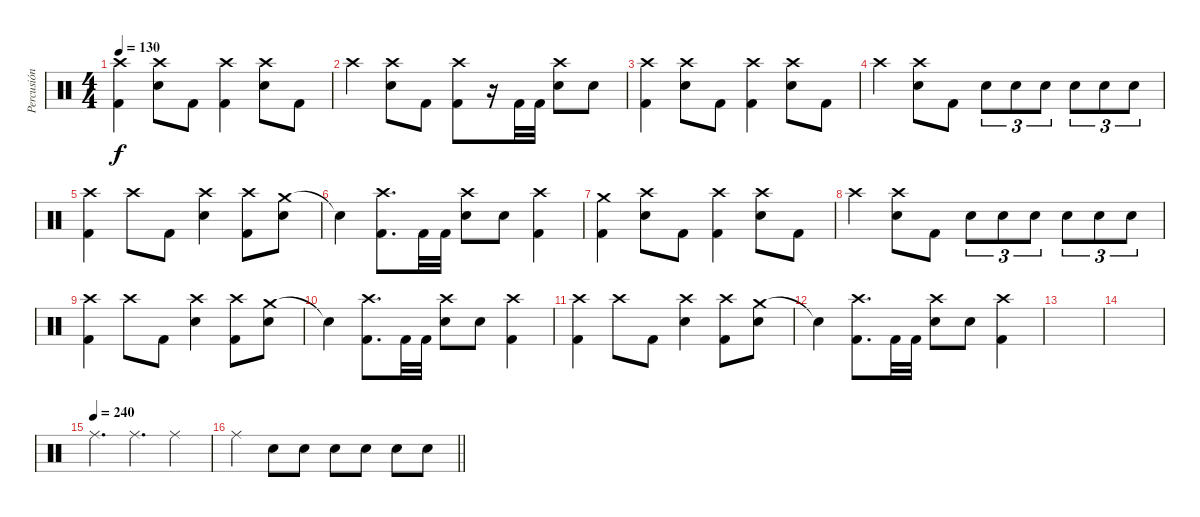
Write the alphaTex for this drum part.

\track ("Percusión" "Percusión") {instrument percussion}
\staff {score}
\articulation defaults
\ts (4 4)
\tempo 130
\clef neutral
\ks c
("Crash high (hit)" "Kick (hit) 2").4{dy f} ("Crash high (hit)" "Electric Snare (hit)").8 "Kick (hit) 2".8 ("Crash high (hit)" "Kick (hit) 2").4 ("Crash high (hit)" "Electric Snare (hit)").8 "Kick (hit) 2".8 |
"Crash high (hit)".4 ("Crash high (hit)" "Electric Snare (hit)").8 "Kick (hit) 2".8 ("Crash high (hit)" "Kick (hit) 2").8 r.16 "Kick (hit) 2".32 "Kick (hit) 2".32 ("Crash high (hit)" "Electric Snare (hit)").8 "Electric Snare (hit)".8 |
("Crash high (hit)" "Kick (hit) 2").4 ("Crash high (hit)" "Electric Snare (hit)").8 "Kick (hit) 2".8 ("Crash high (hit)" "Kick (hit) 2").4 ("Crash high (hit)" "Electric Snare (hit)").8 "Kick (hit) 2".8 |
"Crash high (hit)".4 ("Crash high (hit)" "Electric Snare (hit)").8 "Kick (hit) 2".8 "Electric Snare (hit)".8{tu (3 2)} "Electric Snare (hit)".8{tu (3 2)} "Electric Snare (hit)".8{tu (3 2)} "Electric Snare (hit)".8{tu (3 2)} "Electric Snare (hit)".8{tu (3 2)} "Electric Snare (hit)".8{tu (3 2)} |
("Crash high (hit)" "Kick (hit) 2").4 "Crash high (hit)".8 "Kick (hit) 2".8 ("Crash high (hit)" "Electric Snare (hit)").4 ("Crash high (hit)" "Kick (hit) 2").8 ("Crash medium (hit)" "Electric Snare (hit)").8 |
"Snare (hit)"{t}.4 ("Crash high (hit)" "Kick (hit) 2").8{d} "Kick (hit) 2".32 "Kick (hit) 2".32 ("Crash high (hit)" "Electric Snare (hit)").8 "Electric Snare (hit)".8 ("Crash high (hit)" "Kick (hit) 2").4 |
("Crash medium (hit)" "Kick (hit) 2").4 ("Crash high (hit)" "Electric Snare (hit)").8 "Kick (hit) 2".8 ("Crash high (hit)" "Kick (hit) 2").4 ("Crash high (hit)" "Electric Snare (hit)").8 "Kick (hit) 2".8 |
"Crash high (hit)".4 ("Crash high (hit)" "Electric Snare (hit)").8 "Kick (hit) 2".8 "Electric Snare (hit)".8{tu (3 2)} "Electric Snare (hit)".8{tu (3 2)} "Electric Snare (hit)".8{tu (3 2)} "Electric Snare (hit)".8{tu (3 2)} "Electric Snare (hit)".8{tu (3 2)} "Electric Snare (hit)".8{tu (3 2)} |
("Crash high (hit)" "Kick (hit) 2").4 "Crash high (hit)".8 "Kick (hit) 2".8 ("Crash high (hit)" "Electric Snare (hit)").4 ("Crash high (hit)" "Kick (hit) 2").8 ("Crash medium (hit)" "Electric Snare (hit)").8 |
"Snare (hit)"{t}.4 ("Crash high (hit)" "Kick (hit) 2").8{d} "Kick (hit) 2".32 "Kick (hit) 2".32 ("Crash high (hit)" "Electric Snare (hit)").8 "Electric Snare (hit)".8 ("Crash high (hit)" "Kick (hit) 2").4 |
("Crash high (hit)" "Kick (hit) 2").4 "Crash high (hit)".8 "Kick (hit) 2".8 ("Crash high (hit)" "Electric Snare (hit)").4 ("Crash high (hit)" "Kick (hit) 2").8 ("Crash medium (hit)" "Electric Snare (hit)").8 |
"Snare (hit)"{t}.4 ("Crash high (hit)" "Kick (hit) 2").8{d} "Kick (hit) 2".32 "Kick (hit) 2".32 ("Crash high (hit)" "Electric Snare (hit)").8 "Electric Snare (hit)".8 ("Crash high (hit)" "Kick (hit) 2").4 |
|
|
\tempo (240)
"Ride (middle)".4{d} "Ride (middle)".4{d} "Ride (middle)".4 |
\barLineRight lightlight "Ride (middle)".4 "Electric Snare (hit)".8 "Electric Snare (hit)".8 "Electric Snare (hit)".8 "Electric Snare (hit)".8 "Electric Snare (hit)".8 "Electric Snare (hit)".8
